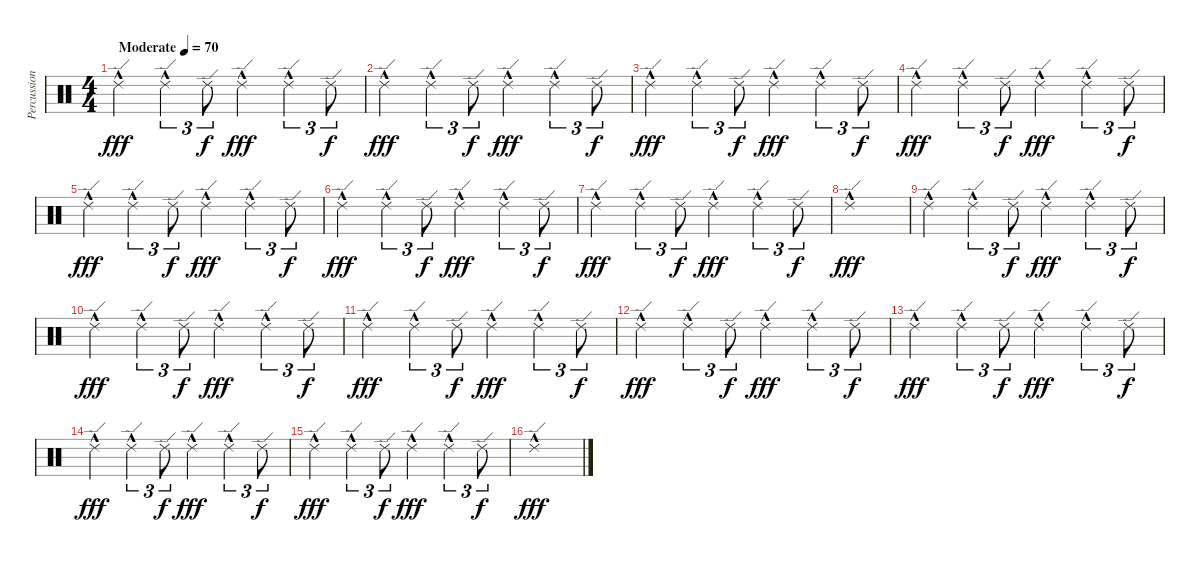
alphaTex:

\track ("Percussion" "Percussion") {instrument percussion}
\staff {score}
\articulation defaults
\ts (4 4)
\tempo (70 "Moderate")
\clef neutral
\ks c "Ride (edge) 2"{hac}.4{dy fff} "Ride (edge) 2"{hac}.4{tu (3 2)} "Ride (edge) 2".8{tu (3 2) dy f} "Ride (edge) 2"{hac}.4{dy fff} "Ride (edge) 2"{hac}.4{tu (3 2)} "Ride (edge) 2".8{tu (3 2) dy f}
|
"Ride (edge) 2"{hac}.4{dy fff} "Ride (edge) 2"{hac}.4{tu (3 2)} "Ride (edge) 2".8{tu (3 2) dy f} "Ride (edge) 2"{hac}.4{dy fff} "Ride (edge) 2"{hac}.4{tu (3 2)} "Ride (edge) 2".8{tu (3 2) dy f} |
"Ride (edge) 2"{hac}.4{dy fff} "Ride (edge) 2"{hac}.4{tu (3 2)} "Ride (edge) 2".8{tu (3 2) dy f} "Ride (edge) 2"{hac}.4{dy fff} "Ride (edge) 2"{hac}.4{tu (3 2)} "Ride (edge) 2".8{tu (3 2) dy f} |
"Ride (edge) 2"{hac}.4{dy fff} "Ride (edge) 2"{hac}.4{tu (3 2)} "Ride (edge) 2".8{tu (3 2) dy f} "Ride (edge) 2"{hac}.4{dy fff} "Ride (edge) 2"{hac}.4{tu (3 2)} "Ride (edge) 2".8{tu (3 2) dy f} |
"Ride (edge) 2"{hac}.4{dy fff} "Ride (edge) 2"{hac}.4{tu (3 2)} "Ride (edge) 2".8{tu (3 2) dy f} "Ride (edge) 2"{hac}.4{dy fff} "Ride (edge) 2"{hac}.4{tu (3 2)} "Ride (edge) 2".8{tu (3 2) dy f} |
"Ride (edge) 2"{hac}.4{dy fff} "Ride (edge) 2"{hac}.4{tu (3 2)} "Ride (edge) 2".8{tu (3 2) dy f} "Ride (edge) 2"{hac}.4{dy fff} "Ride (edge) 2"{hac}.4{tu (3 2)} "Ride (edge) 2".8{tu (3 2) dy f} |
"Ride (edge) 2"{hac}.4{dy fff} "Ride (edge) 2"{hac}.4{tu (3 2)} "Ride (edge) 2".8{tu (3 2) dy f} "Ride (edge) 2"{hac}.4{dy fff} "Ride (edge) 2"{hac}.4{tu (3 2)} "Ride (edge) 2".8{tu (3 2) dy f} |
"Ride (edge) 2"{hac}.1{dy fff} |
"Ride (edge) 2"{hac}.4 "Ride (edge) 2"{hac}.4{tu (3 2)} "Ride (edge) 2".8{tu (3 2) dy f} "Ride (edge) 2"{hac}.4{dy fff} "Ride (edge) 2"{hac}.4{tu (3 2)} "Ride (edge) 2".8{tu (3 2) dy f} |
"Ride (edge) 2"{hac}.4{dy fff} "Ride (edge) 2"{hac}.4{tu (3 2)} "Ride (edge) 2".8{tu (3 2) dy f} "Ride (edge) 2"{hac}.4{dy fff} "Ride (edge) 2"{hac}.4{tu (3 2)} "Ride (edge) 2".8{tu (3 2) dy f} |
"Ride (edge) 2"{hac}.4{dy fff} "Ride (edge) 2"{hac}.4{tu (3 2)} "Ride (edge) 2".8{tu (3 2) dy f} "Ride (edge) 2"{hac}.4{dy fff} "Ride (edge) 2"{hac}.4{tu (3 2)} "Ride (edge) 2".8{tu (3 2) dy f} |
"Ride (edge) 2"{hac}.4{dy fff} "Ride (edge) 2"{hac}.4{tu (3 2)} "Ride (edge) 2".8{tu (3 2) dy f} "Ride (edge) 2"{hac}.4{dy fff} "Ride (edge) 2"{hac}.4{tu (3 2)} "Ride (edge) 2".8{tu (3 2) dy f} |
"Ride (edge) 2"{hac}.4{dy fff} "Ride (edge) 2"{hac}.4{tu (3 2)} "Ride (edge) 2".8{tu (3 2) dy f} "Ride (edge) 2"{hac}.4{dy fff} "Ride (edge) 2"{hac}.4{tu (3 2)} "Ride (edge) 2".8{tu (3 2) dy f} |
"Ride (edge) 2"{hac}.4{dy fff} "Ride (edge) 2"{hac}.4{tu (3 2)} "Ride (edge) 2".8{tu (3 2) dy f} "Ride (edge) 2"{hac}.4{dy fff} "Ride (edge) 2"{hac}.4{tu (3 2)} "Ride (edge) 2".8{tu (3 2) dy f} |
"Ride (edge) 2"{hac}.4{dy fff} "Ride (edge) 2"{hac}.4{tu (3 2)} "Ride (edge) 2".8{tu (3 2) dy f} "Ride (edge) 2"{hac}.4{dy fff} "Ride (edge) 2"{hac}.4{tu (3 2)} "Ride (edge) 2".8{tu (3 2) dy f} |
"Ride (edge) 2"{hac}.1{dy fff}
